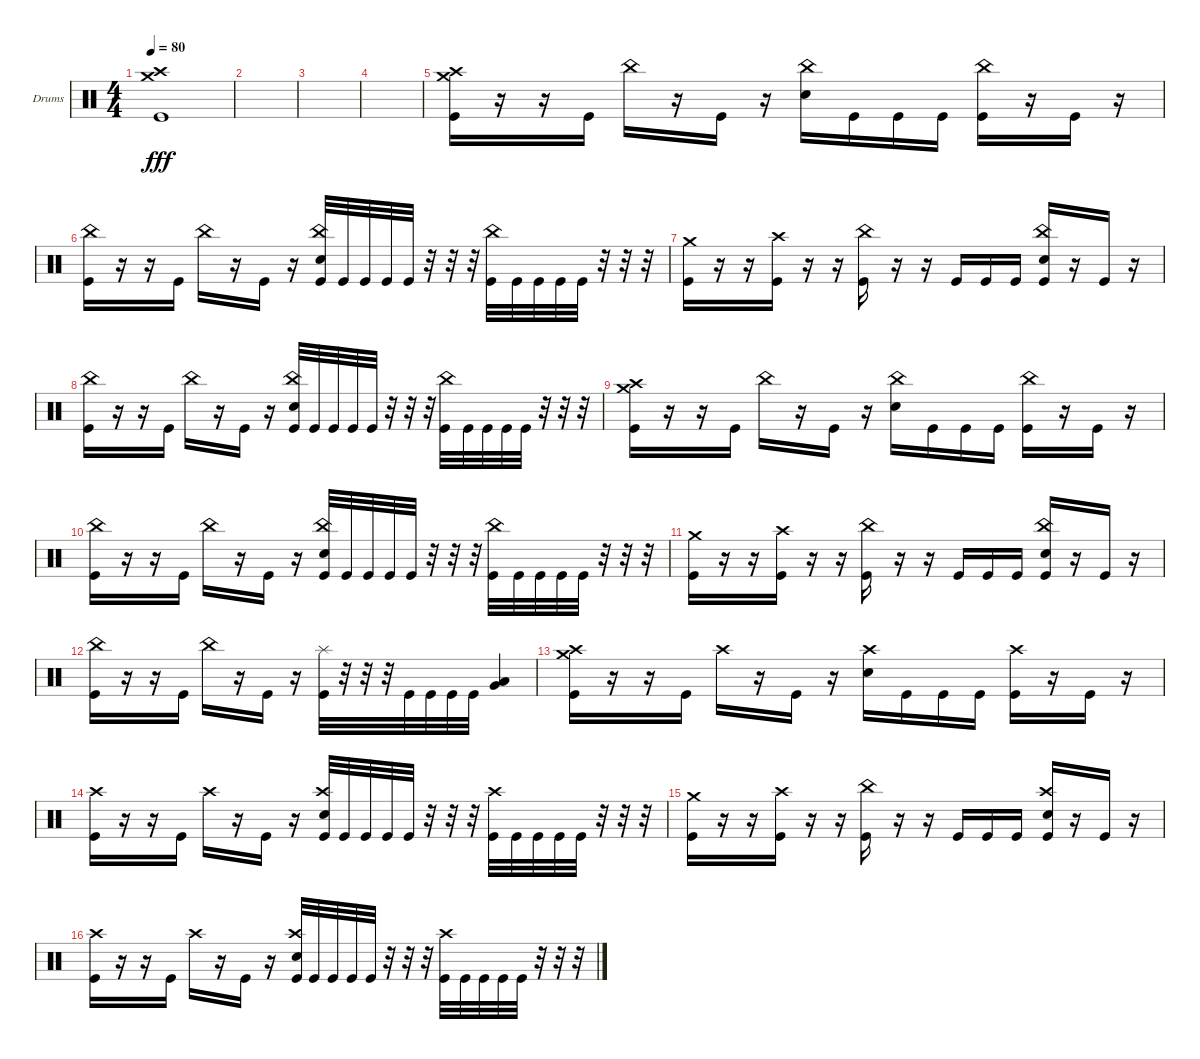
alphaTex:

\bracketExtendMode groupsimilarinstruments
\firstSystemTrackNameOrientation horizontal
\otherSystemsTrackNameOrientation horizontal
\track ("Drumkit" "Drums") {instrument percussion}
\staff {score}
\articulation defaults
\ts (4 4)
\tempo 80
\clef neutral
\ks c
("Kick (hit)" "Crash high (hit)" "Crash medium (hit)").1{dy fff} |
|
|
|
("Kick (hit)" "Crash high (hit)" "Crash medium (hit)").16 r.16 r.16 "Kick (hit)".16 "China (hit)".16 r.16 "Kick (hit)".16 r.16 ("Snare (hit) 2" "China (hit)").16 "Kick (hit)".16 "Kick (hit)".16 "Kick (hit)".16 ("Kick (hit)" "China (hit)").16 r.16 "Kick (hit)".16 r.16 |
("Kick (hit)" "China (hit)").16 r.16 r.16 "Kick (hit)".16 "China (hit)".16 r.16 "Kick (hit)".16 r.16 ("Kick (hit)" "Snare (hit) 2" "China (hit)").32 "Kick (hit)".32 "Kick (hit)".32 "Kick (hit)".32 "Kick (hit)".32 r.32 r.32 r.32 ("Kick (hit)" "China (hit)").32 "Kick (hit)".32 "Kick (hit)".32 "Kick (hit)".32 "Kick (hit)".32 r.32 r.32 r.32 |
("Kick (hit)" "Crash medium (hit)").16 r.16 r.16 ("Kick (hit)" "Crash high (hit)").16 r.16 r.16 ("Kick (hit)" "China (hit)").16 r.16 r.16 "Kick (hit)".16 "Kick (hit)".16 "Kick (hit)".16 ("Kick (hit)" "China (hit)" "Snare (hit) 2").16 r.16 "Kick (hit)".16 r.16 |
("Kick (hit)" "China (hit)").16 r.16 r.16 "Kick (hit)".16 "China (hit)".16 r.16 "Kick (hit)".16 r.16 ("Kick (hit)" "Snare (hit) 2" "China (hit)").32 "Kick (hit)".32 "Kick (hit)".32 "Kick (hit)".32 "Kick (hit)".32 r.32 r.32 r.32 ("Kick (hit)" "China (hit)").32 "Kick (hit)".32 "Kick (hit)".32 "Kick (hit)".32 "Kick (hit)".32 r.32 r.32 r.32 |
("Kick (hit)" "Crash high (hit)" "Crash medium (hit)").16 r.16 r.16 "Kick (hit)".16 "China (hit)".16 r.16 "Kick (hit)".16 r.16 ("Snare (hit) 2" "China (hit)").16 "Kick (hit)".16 "Kick (hit)".16 "Kick (hit)".16 ("Kick (hit)" "China (hit)").16 r.16 "Kick (hit)".16 r.16 |
("Kick (hit)" "China (hit)").16 r.16 r.16 "Kick (hit)".16 "China (hit)".16 r.16 "Kick (hit)".16 r.16 ("Kick (hit)" "Snare (hit) 2" "China (hit)").32 "Kick (hit)".32 "Kick (hit)".32 "Kick (hit)".32 "Kick (hit)".32 r.32 r.32 r.32 ("Kick (hit)" "China (hit)").32 "Kick (hit)".32 "Kick (hit)".32 "Kick (hit)".32 "Kick (hit)".32 r.32 r.32 r.32 |
("Kick (hit)" "Crash medium (hit)").16 r.16 r.16 ("Kick (hit)" "Crash high (hit)").16 r.16 r.16 ("Kick (hit)" "China (hit)").16 r.16 r.16 "Kick (hit)".16 "Kick (hit)".16 "Kick (hit)".16 ("Kick (hit)" "China (hit)" "Snare (hit) 2").16 r.16 "Kick (hit)".16 r.16 |
("Kick (hit)" "China (hit)").16 r.16 r.16 "Kick (hit)".16 "China (hit)".16 r.16 "Kick (hit)".16 r.16 ("Splash (hit)" "Kick (hit)").32 r.32 r.32 r.32 "Kick (hit)".32 "Kick (hit)".32 "Kick (hit)".32 "Kick (hit)".32 ("Very Low Tom (hit)" "Low Tom (hit)").4 |
("Kick (hit)" "Crash high (hit)" "Crash medium (hit)").16 r.16 r.16 "Kick (hit)".16 "Crash high (hit)".16 r.16 "Kick (hit)".16 r.16 ("Snare (hit) 2" "Crash high (hit)").16 "Kick (hit)".16 "Kick (hit)".16 "Kick (hit)".16 ("Kick (hit)" "Crash high (hit)").16 r.16 "Kick (hit)".16 r.16 |
("Kick (hit)" "Crash high (hit)").16 r.16 r.16 "Kick (hit)".16 "Crash high (hit)".16 r.16 "Kick (hit)".16 r.16 ("Kick (hit)" "Snare (hit) 2" "Crash high (hit)").32 "Kick (hit)".32 "Kick (hit)".32 "Kick (hit)".32 "Kick (hit)".32 r.32 r.32 r.32 ("Kick (hit)" "Crash high (hit)").32 "Kick (hit)".32 "Kick (hit)".32 "Kick (hit)".32 "Kick (hit)".32 r.32 r.32 r.32 |
("Kick (hit)" "Crash medium (hit)").16 r.16 r.16 ("Kick (hit)" "Crash high (hit)").16 r.16 r.16 ("Kick (hit)" "China (hit)").16 r.16 r.16 "Kick (hit)".16 "Kick (hit)".16 "Kick (hit)".16 ("Kick (hit)" "Snare (hit) 2" "Crash high (hit)").16 r.16 "Kick (hit)".16 r.16 |
("Kick (hit)" "Crash high (hit)").16 r.16 r.16 "Kick (hit)".16 "Crash high (hit)".16 r.16 "Kick (hit)".16 r.16 ("Kick (hit)" "Snare (hit) 2" "Crash high (hit)").32 "Kick (hit)".32 "Kick (hit)".32 "Kick (hit)".32 "Kick (hit)".32 r.32 r.32 r.32 ("Kick (hit)" "Crash high (hit)").32 "Kick (hit)".32 "Kick (hit)".32 "Kick (hit)".32 "Kick (hit)".32 r.32 r.32 r.32
